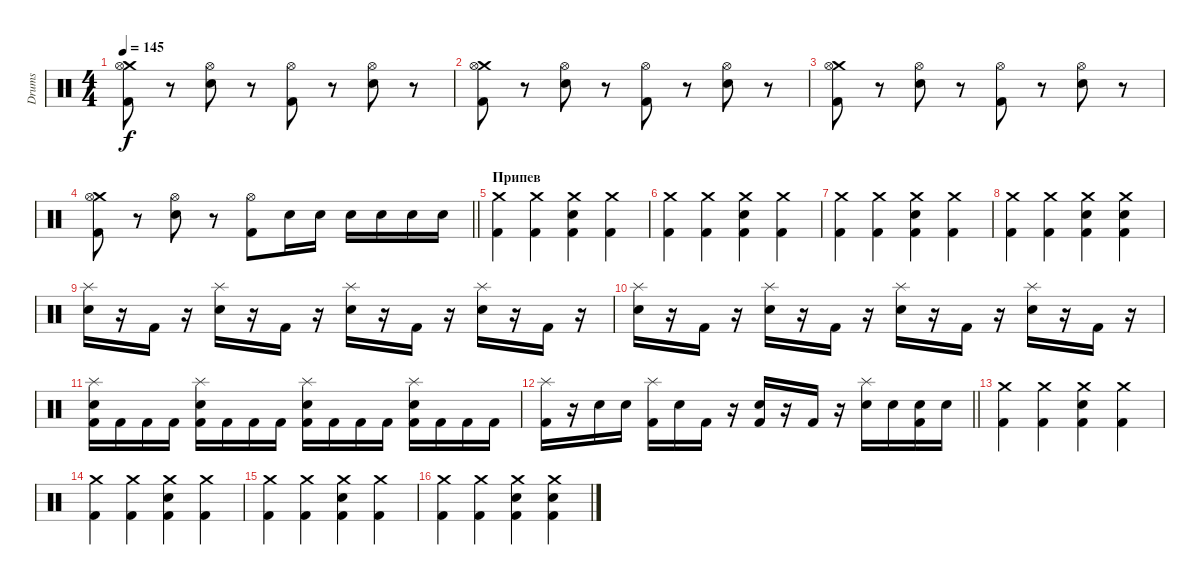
\track ("Drums" "Drums") {instrument percussion}
\staff {score}
\articulation defaults
\ts (4 4)
\tempo 145
\clef neutral
\ks c
("Crash medium (hit)" "Hi-Hat (open)" "Kick (hit) 2").8{dy f} r.8 ("Hi-Hat (open)" "Electric Snare (hit)").8 r.8 ("Hi-Hat (open)" "Kick (hit) 2").8 r.8 ("Hi-Hat (open)" "Electric Snare (hit)").8 r.8 |
("Crash medium (hit)" "Hi-Hat (open)" "Kick (hit) 2").8 r.8 ("Hi-Hat (open)" "Electric Snare (hit)").8 r.8 ("Hi-Hat (open)" "Kick (hit) 2").8 r.8 ("Hi-Hat (open)" "Electric Snare (hit)").8 r.8 |
("Crash medium (hit)" "Hi-Hat (open)" "Kick (hit) 2").8 r.8 ("Hi-Hat (open)" "Electric Snare (hit)").8 r.8 ("Hi-Hat (open)" "Kick (hit) 2").8 r.8 ("Hi-Hat (open)" "Electric Snare (hit)").8 r.8 |
\barLineRight lightlight
("Crash medium (hit)" "Hi-Hat (open)" "Kick (hit) 2").8 r.8 ("Hi-Hat (open)" "Electric Snare (hit)").8 r.8 ("Hi-Hat (open)" "Kick (hit) 2").8 "Electric Snare (hit)".16 "Electric Snare (hit)".16 "Electric Snare (hit)".16 "Electric Snare (hit)".16 "Electric Snare (hit)".16 "Electric Snare (hit)".16 |
\section ("" "Припев")
("Crash medium (hit)" "Kick (hit) 2").4 ("Crash medium (hit)" "Kick (hit) 2").4 ("Crash medium (hit)" "Electric Snare (hit)" "Kick (hit) 2").4 ("Crash medium (hit)" "Kick (hit) 2").4 |
("Crash medium (hit)" "Kick (hit) 2").4 ("Crash medium (hit)" "Kick (hit) 2").4 ("Crash medium (hit)" "Electric Snare (hit)" "Kick (hit) 2").4 ("Crash medium (hit)" "Kick (hit) 2").4 |
("Crash medium (hit)" "Kick (hit) 2").4 ("Crash medium (hit)" "Kick (hit) 2").4 ("Crash medium (hit)" "Electric Snare (hit)" "Kick (hit) 2").4 ("Crash medium (hit)" "Kick (hit) 2").4 |
("Crash medium (hit)" "Kick (hit) 2").4 ("Crash medium (hit)" "Kick (hit) 2").4 ("Crash medium (hit)" "Electric Snare (hit)" "Kick (hit) 2").4 ("Crash medium (hit)" "Electric Snare (hit)" "Kick (hit) 2").4 |
("Splash (hit)" "Electric Snare (hit)").16 r.16 "Kick (hit) 2".16 r.16 ("Splash (hit)" "Electric Snare (hit)").16 r.16 "Kick (hit) 2".16 r.16 ("Splash (hit)" "Electric Snare (hit)").16 r.16 "Kick (hit) 2".16 r.16 ("Splash (hit)" "Electric Snare (hit)").16 r.16 "Kick (hit) 2".16 r.16 |
("Splash (hit)" "Electric Snare (hit)").16 r.16 "Kick (hit) 2".16 r.16 ("Splash (hit)" "Electric Snare (hit)").16 r.16 "Kick (hit) 2".16 r.16 ("Splash (hit)" "Electric Snare (hit)").16 r.16 "Kick (hit) 2".16 r.16 ("Splash (hit)" "Electric Snare (hit)").16 r.16 "Kick (hit) 2".16 r.16 |
("Splash (hit)" "Electric Snare (hit)" "Kick (hit) 2").16 "Kick (hit) 2".16 "Kick (hit) 2".16 "Kick (hit) 2".16 ("Splash (hit)" "Electric Snare (hit)" "Kick (hit) 2").16 "Kick (hit) 2".16 "Kick (hit) 2".16 "Kick (hit) 2".16 ("Splash (hit)" "Electric Snare (hit)" "Kick (hit) 2").16 "Kick (hit) 2".16 "Kick (hit) 2".16 "Kick (hit) 2".16 ("Splash (hit)" "Electric Snare (hit)" "Kick (hit) 2").16 "Kick (hit) 2".16 "Kick (hit) 2".16 "Kick (hit) 2".16 |
\barLineRight lightlight
("Splash (hit)" "Kick (hit) 2").16 r.16 "Electric Snare (hit)".16 "Electric Snare (hit)".16 ("Splash (hit)" "Kick (hit) 2").16 "Electric Snare (hit)".16 "Kick (hit) 2".16 r.16 ("Electric Snare (hit)" "Kick (hit) 2").16 r.16 "Kick (hit) 2".16 r.16 ("Splash (hit)" "Electric Snare (hit)").16 "Electric Snare (hit)".16 ("Electric Snare (hit)" "Kick (hit) 2").16 "Electric Snare (hit)".16 |
("Crash medium (hit)" "Kick (hit) 2").4 ("Crash medium (hit)" "Kick (hit) 2").4 ("Crash medium (hit)" "Electric Snare (hit)" "Kick (hit) 2").4 ("Crash medium (hit)" "Kick (hit) 2").4 |
("Crash medium (hit)" "Kick (hit) 2").4 ("Crash medium (hit)" "Kick (hit) 2").4 ("Crash medium (hit)" "Electric Snare (hit)" "Kick (hit) 2").4 ("Crash medium (hit)" "Kick (hit) 2").4 |
("Crash medium (hit)" "Kick (hit) 2").4 ("Crash medium (hit)" "Kick (hit) 2").4 ("Crash medium (hit)" "Electric Snare (hit)" "Kick (hit) 2").4 ("Crash medium (hit)" "Kick (hit) 2").4 |
("Crash medium (hit)" "Kick (hit) 2").4 ("Crash medium (hit)" "Kick (hit) 2").4 ("Crash medium (hit)" "Electric Snare (hit)" "Kick (hit) 2").4 ("Crash medium (hit)" "Electric Snare (hit)" "Kick (hit) 2").4
